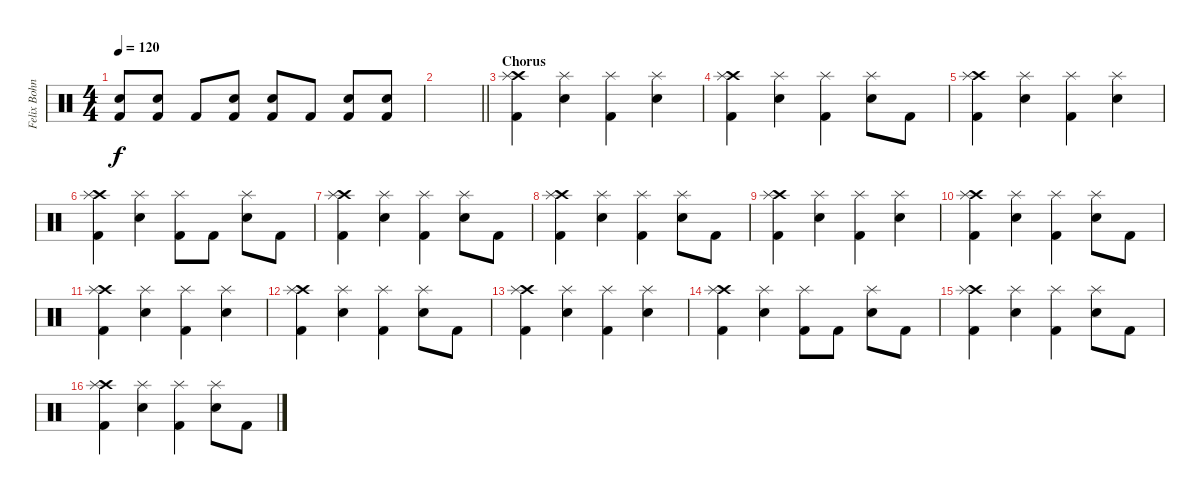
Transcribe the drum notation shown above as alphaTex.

\track ("Felix Bohnke (Drums)" "Felix Bohn") {instrument percussion}
\staff {score}
\articulation defaults
\ts (4 4)
\tempo 120
\clef neutral
\ks c
("Snare (hit) 2" "Kick (hit) 2").8{dy f} ("Snare (hit) 2" "Kick (hit) 2").8 "Kick (hit) 2".8 ("Snare (hit) 2" "Kick (hit) 2").8 ("Snare (hit) 2" "Kick (hit) 2").8 "Kick (hit) 2".8 ("Snare (hit) 2" "Kick (hit) 2").8 ("Snare (hit) 2" "Kick (hit) 2").8 |
\barLineRight lightlight
|
\section ("" "Chorus")
("Crash high (hit)" "Splash (hit)" "Kick (hit) 2").4 ("Splash (hit)" "Snare (hit) 2").4 ("Splash (hit)" "Kick (hit) 2").4 ("Splash (hit)" "Snare (hit) 2").4 |
("Crash high (hit)" "Splash (hit)" "Kick (hit) 2").4 ("Splash (hit)" "Snare (hit) 2").4 ("Splash (hit)" "Kick (hit) 2").4 ("Splash (hit)" "Snare (hit) 2").8 "Kick (hit) 2".8 |
("Crash high (hit)" "Splash (hit)" "Kick (hit) 2").4 ("Splash (hit)" "Snare (hit) 2").4 ("Splash (hit)" "Kick (hit) 2").4 ("Splash (hit)" "Snare (hit) 2").4 |
("Crash high (hit)" "Splash (hit)" "Kick (hit) 2").4 ("Splash (hit)" "Snare (hit) 2").4 ("Splash (hit)" "Kick (hit) 2").8 "Kick (hit) 2".8 ("Splash (hit)" "Snare (hit) 2").8 "Kick (hit) 2".8 |
("Crash high (hit)" "Splash (hit)" "Kick (hit) 2").4 ("Splash (hit)" "Snare (hit) 2").4 ("Splash (hit)" "Kick (hit) 2").4 ("Splash (hit)" "Snare (hit) 2").8 "Kick (hit) 2".8 |
("Crash high (hit)" "Splash (hit)" "Kick (hit) 2").4 ("Splash (hit)" "Snare (hit) 2").4 ("Splash (hit)" "Kick (hit) 2").4 ("Splash (hit)" "Snare (hit) 2").8 "Kick (hit) 2".8 |
("Crash high (hit)" "Splash (hit)" "Kick (hit) 2").4 ("Splash (hit)" "Snare (hit) 2").4 ("Splash (hit)" "Kick (hit) 2").4 ("Splash (hit)" "Snare (hit) 2").4 |
("Crash high (hit)" "Splash (hit)" "Kick (hit) 2").4 ("Splash (hit)" "Snare (hit) 2").4 ("Splash (hit)" "Kick (hit) 2").4 ("Splash (hit)" "Snare (hit) 2").8 "Kick (hit) 2".8 |
("Crash high (hit)" "Splash (hit)" "Kick (hit) 2").4 ("Splash (hit)" "Snare (hit) 2").4 ("Splash (hit)" "Kick (hit) 2").4 ("Splash (hit)" "Snare (hit) 2").4 |
("Crash high (hit)" "Splash (hit)" "Kick (hit) 2").4 ("Splash (hit)" "Snare (hit) 2").4 ("Splash (hit)" "Kick (hit) 2").4 ("Splash (hit)" "Snare (hit) 2").8 "Kick (hit) 2".8 |
("Crash high (hit)" "Splash (hit)" "Kick (hit) 2").4 ("Splash (hit)" "Snare (hit) 2").4 ("Splash (hit)" "Kick (hit) 2").4 ("Splash (hit)" "Snare (hit) 2").4 |
("Crash high (hit)" "Splash (hit)" "Kick (hit) 2").4 ("Splash (hit)" "Snare (hit) 2").4 ("Splash (hit)" "Kick (hit) 2").8 "Kick (hit) 2".8 ("Splash (hit)" "Snare (hit) 2").8 "Kick (hit) 2".8 |
("Crash high (hit)" "Splash (hit)" "Kick (hit) 2").4 ("Splash (hit)" "Snare (hit) 2").4 ("Splash (hit)" "Kick (hit) 2").4 ("Splash (hit)" "Snare (hit) 2").8 "Kick (hit) 2".8 |
("Crash high (hit)" "Splash (hit)" "Kick (hit) 2").4 ("Splash (hit)" "Snare (hit) 2").4 ("Splash (hit)" "Kick (hit) 2").4 ("Splash (hit)" "Snare (hit) 2").8 "Kick (hit) 2".8
